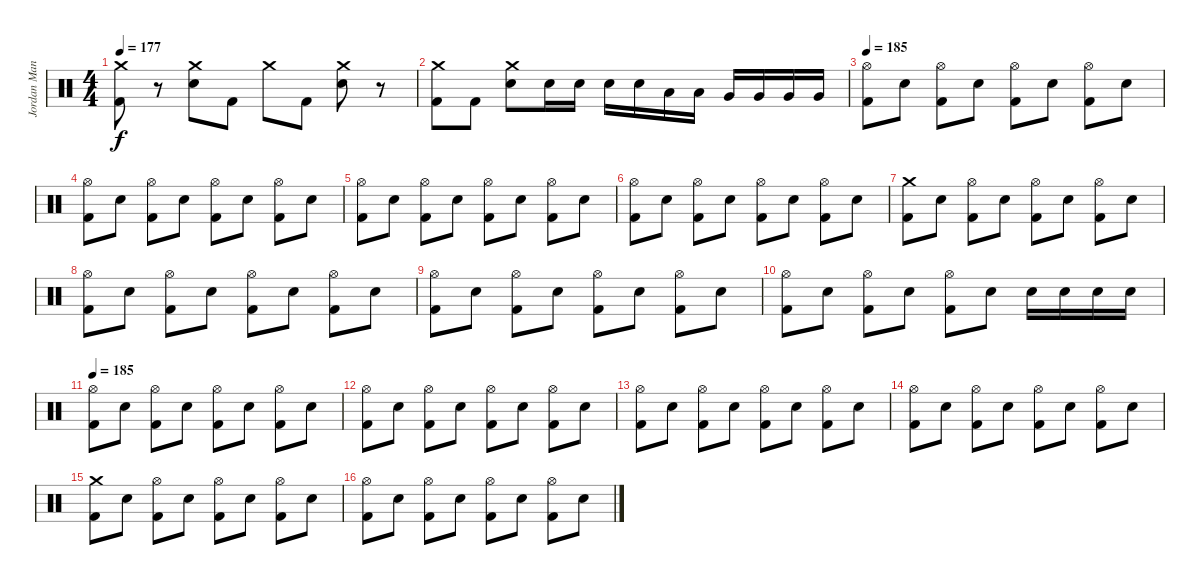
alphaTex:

\track ("Jordan Mancino" "Jordan Man") {instrument percussion}
\staff {score}
\articulation defaults
\ts (4 4)
\tempo 177
\clef neutral
\ks c
("Crash medium (hit)" "Kick (hit) 2").8{dy f} r.8 ("Crash medium (hit)" "Electric Snare (hit)").8 "Kick (hit) 2".8 "Crash medium (hit)".8 "Kick (hit) 2".8 ("Crash medium (hit)" "Electric Snare (hit)").8 r.8 |
("Crash medium (hit)" "Kick (hit) 2").8 "Kick (hit) 2".8 ("Crash medium (hit)" "Electric Snare (hit)").8 "Electric Snare (hit)".16 "Electric Snare (hit)".16 "Electric Snare (hit)".16 "Electric Snare (hit)".16 "Low Tom (hit)".16 "Low Tom (hit)".16 "Very Low Tom (hit)".16 "Very Low Tom (hit)".16 "Very Low Tom (hit)".16 "Very Low Tom (hit)".16 |
\tempo 185
("Hi-Hat (open)" "Kick (hit) 2").8 "Electric Snare (hit)".8 ("Hi-Hat (open)" "Kick (hit) 2").8 "Electric Snare (hit)".8 ("Hi-Hat (open)" "Kick (hit) 2").8 "Electric Snare (hit)".8 ("Hi-Hat (open)" "Kick (hit) 2").8 "Electric Snare (hit)".8 |
("Hi-Hat (open)" "Kick (hit) 2").8 "Electric Snare (hit)".8 ("Hi-Hat (open)" "Kick (hit) 2").8 "Electric Snare (hit)".8 ("Hi-Hat (open)" "Kick (hit) 2").8 "Electric Snare (hit)".8 ("Hi-Hat (open)" "Kick (hit) 2").8 "Electric Snare (hit)".8 |
("Hi-Hat (open)" "Kick (hit) 2").8 "Electric Snare (hit)".8 ("Hi-Hat (open)" "Kick (hit) 2").8 "Electric Snare (hit)".8 ("Hi-Hat (open)" "Kick (hit) 2").8 "Electric Snare (hit)".8 ("Hi-Hat (open)" "Kick (hit) 2").8 "Electric Snare (hit)".8 |
("Hi-Hat (open)" "Kick (hit) 2").8 "Electric Snare (hit)".8 ("Hi-Hat (open)" "Kick (hit) 2").8 "Electric Snare (hit)".8 ("Hi-Hat (open)" "Kick (hit) 2").8 "Electric Snare (hit)".8 ("Hi-Hat (open)" "Kick (hit) 2").8 "Electric Snare (hit)".8 |
("Crash medium (hit)" "Kick (hit) 2").8 "Electric Snare (hit)".8 ("Hi-Hat (open)" "Kick (hit) 2").8 "Electric Snare (hit)".8 ("Hi-Hat (open)" "Kick (hit) 2").8 "Electric Snare (hit)".8 ("Hi-Hat (open)" "Kick (hit) 2").8 "Electric Snare (hit)".8 |
("Hi-Hat (open)" "Kick (hit) 2").8 "Electric Snare (hit)".8 ("Hi-Hat (open)" "Kick (hit) 2").8 "Electric Snare (hit)".8 ("Hi-Hat (open)" "Kick (hit) 2").8 "Electric Snare (hit)".8 ("Hi-Hat (open)" "Kick (hit) 2").8 "Electric Snare (hit)".8 |
("Hi-Hat (open)" "Kick (hit) 2").8 "Electric Snare (hit)".8 ("Hi-Hat (open)" "Kick (hit) 2").8 "Electric Snare (hit)".8 ("Hi-Hat (open)" "Kick (hit) 2").8 "Electric Snare (hit)".8 ("Hi-Hat (open)" "Kick (hit) 2").8 "Electric Snare (hit)".8 |
("Hi-Hat (open)" "Kick (hit) 2").8 "Electric Snare (hit)".8 ("Hi-Hat (open)" "Kick (hit) 2").8 "Electric Snare (hit)".8 ("Hi-Hat (open)" "Kick (hit) 2").8 "Electric Snare (hit)".8 "Electric Snare (hit)".16 "Electric Snare (hit)".16 "Electric Snare (hit)".16 "Electric Snare (hit)".16 |
\tempo 185
("Hi-Hat (open)" "Kick (hit) 2").8 "Electric Snare (hit)".8 ("Hi-Hat (open)" "Kick (hit) 2").8 "Electric Snare (hit)".8 ("Hi-Hat (open)" "Kick (hit) 2").8 "Electric Snare (hit)".8 ("Hi-Hat (open)" "Kick (hit) 2").8 "Electric Snare (hit)".8 |
("Hi-Hat (open)" "Kick (hit) 2").8 "Electric Snare (hit)".8 ("Hi-Hat (open)" "Kick (hit) 2").8 "Electric Snare (hit)".8 ("Hi-Hat (open)" "Kick (hit) 2").8 "Electric Snare (hit)".8 ("Hi-Hat (open)" "Kick (hit) 2").8 "Electric Snare (hit)".8 |
("Hi-Hat (open)" "Kick (hit) 2").8 "Electric Snare (hit)".8 ("Hi-Hat (open)" "Kick (hit) 2").8 "Electric Snare (hit)".8 ("Hi-Hat (open)" "Kick (hit) 2").8 "Electric Snare (hit)".8 ("Hi-Hat (open)" "Kick (hit) 2").8 "Electric Snare (hit)".8 |
("Hi-Hat (open)" "Kick (hit) 2").8 "Electric Snare (hit)".8 ("Hi-Hat (open)" "Kick (hit) 2").8 "Electric Snare (hit)".8 ("Hi-Hat (open)" "Kick (hit) 2").8 "Electric Snare (hit)".8 ("Hi-Hat (open)" "Kick (hit) 2").8 "Electric Snare (hit)".8 |
("Crash medium (hit)" "Kick (hit) 2").8 "Electric Snare (hit)".8 ("Hi-Hat (open)" "Kick (hit) 2").8 "Electric Snare (hit)".8 ("Hi-Hat (open)" "Kick (hit) 2").8 "Electric Snare (hit)".8 ("Hi-Hat (open)" "Kick (hit) 2").8 "Electric Snare (hit)".8 |
("Hi-Hat (open)" "Kick (hit) 2").8 "Electric Snare (hit)".8 ("Hi-Hat (open)" "Kick (hit) 2").8 "Electric Snare (hit)".8 ("Hi-Hat (open)" "Kick (hit) 2").8 "Electric Snare (hit)".8 ("Hi-Hat (open)" "Kick (hit) 2").8 "Electric Snare (hit)".8
